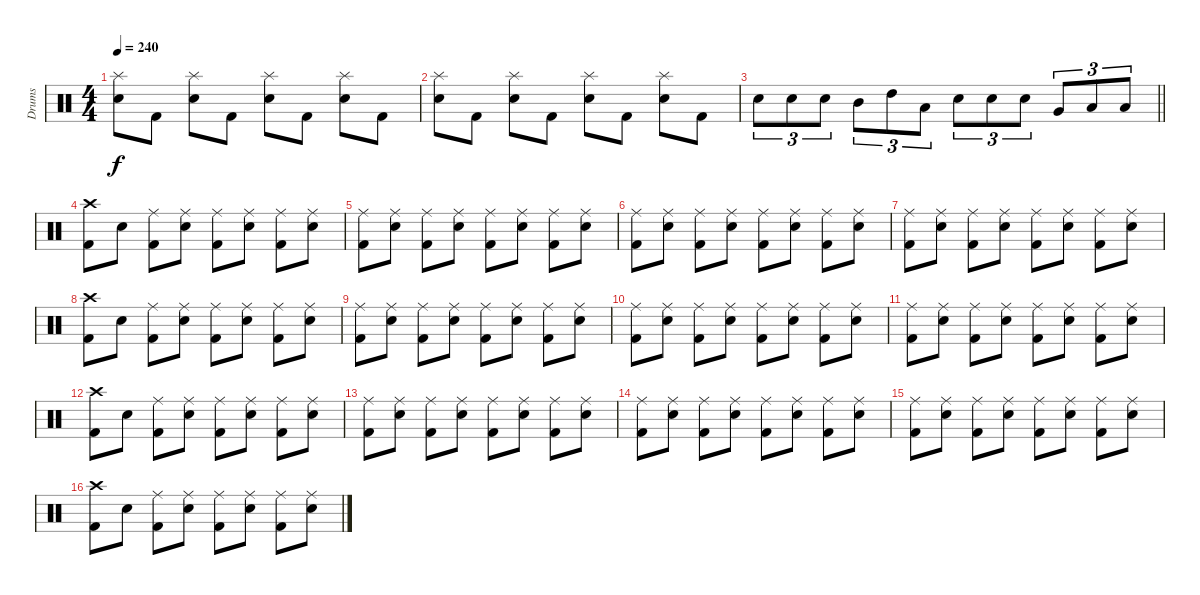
\track ("Drums" "Drums") {instrument percussion}
\staff {score}
\articulation defaults
\ts (4 4)
\tempo 240
\clef neutral
\ks c
("Splash (hit)" "Electric Snare (hit)").8{dy f} "Kick (hit) 2".8 ("Splash (hit)" "Electric Snare (hit)").8 "Kick (hit) 2".8 ("Splash (hit)" "Electric Snare (hit)").8 "Kick (hit) 2".8 ("Splash (hit)" "Electric Snare (hit)").8 "Kick (hit) 2".8 |
("Splash (hit)" "Electric Snare (hit)").8 "Kick (hit) 2".8 ("Splash (hit)" "Electric Snare (hit)").8 "Kick (hit) 2".8 ("Splash (hit)" "Electric Snare (hit)").8 "Kick (hit) 2".8 ("Splash (hit)" "Electric Snare (hit)").8 "Kick (hit) 2".8 |
\barLineRight lightlight "Electric Snare (hit)".8{tu (3 2)} "Electric Snare (hit)".8{tu (3 2)} "Electric Snare (hit)".8{tu (3 2)} "Mid Tom (hit)".8{tu (3 2)} "High Tom (hit)".8{tu (3 2)} "Low Tom (hit)".8{tu (3 2)} "Electric Snare (hit)".8{tu (3 2)} "Electric Snare (hit)".8{tu (3 2)} "Electric Snare (hit)".8{tu (3 2)} "Very Low Tom (hit)".8{tu (3 2)} "Low Tom (hit)".8{tu (3 2)} "Low Floor Tom (hit)".8{tu (3 2)}
|
("Crash high (hit)" "Kick (hit) 2").8 "Electric Snare (hit)".8 ("Ride (middle)" "Kick (hit) 2").8 ("Ride (middle)" "Electric Snare (hit)").8 ("Ride (middle)" "Kick (hit) 2").8 ("Ride (middle)" "Electric Snare (hit)").8 ("Ride (middle)" "Kick (hit) 2").8 ("Ride (middle)" "Electric Snare (hit)").8 |
("Ride (middle)" "Kick (hit) 2").8 ("Ride (middle)" "Electric Snare (hit)").8 ("Ride (middle)" "Kick (hit) 2").8 ("Ride (middle)" "Electric Snare (hit)").8 ("Ride (middle)" "Kick (hit) 2").8 ("Ride (middle)" "Electric Snare (hit)").8 ("Ride (middle)" "Kick (hit) 2").8 ("Ride (middle)" "Electric Snare (hit)").8 |
("Ride (middle)" "Kick (hit) 2").8 ("Ride (middle)" "Electric Snare (hit)").8 ("Ride (middle)" "Kick (hit) 2").8 ("Ride (middle)" "Electric Snare (hit)").8 ("Ride (middle)" "Kick (hit) 2").8 ("Ride (middle)" "Electric Snare (hit)").8 ("Ride (middle)" "Kick (hit) 2").8 ("Ride (middle)" "Electric Snare (hit)").8 |
("Ride (middle)" "Kick (hit) 2").8 ("Ride (middle)" "Electric Snare (hit)").8 ("Ride (middle)" "Kick (hit) 2").8 ("Ride (middle)" "Electric Snare (hit)").8 ("Ride (middle)" "Kick (hit) 2").8 ("Ride (middle)" "Electric Snare (hit)").8 ("Ride (middle)" "Kick (hit) 2").8 ("Ride (middle)" "Electric Snare (hit)").8 |
("Crash high (hit)" "Kick (hit) 2").8 "Electric Snare (hit)".8 ("Ride (middle)" "Kick (hit) 2").8 ("Ride (middle)" "Electric Snare (hit)").8 ("Ride (middle)" "Kick (hit) 2").8 ("Ride (middle)" "Electric Snare (hit)").8 ("Ride (middle)" "Kick (hit) 2").8 ("Ride (middle)" "Electric Snare (hit)").8 |
("Ride (middle)" "Kick (hit) 2").8 ("Ride (middle)" "Electric Snare (hit)").8 ("Ride (middle)" "Kick (hit) 2").8 ("Ride (middle)" "Electric Snare (hit)").8 ("Ride (middle)" "Kick (hit) 2").8 ("Ride (middle)" "Electric Snare (hit)").8 ("Ride (middle)" "Kick (hit) 2").8 ("Ride (middle)" "Electric Snare (hit)").8 |
("Ride (middle)" "Kick (hit) 2").8 ("Ride (middle)" "Electric Snare (hit)").8 ("Ride (middle)" "Kick (hit) 2").8 ("Ride (middle)" "Electric Snare (hit)").8 ("Ride (middle)" "Kick (hit) 2").8 ("Ride (middle)" "Electric Snare (hit)").8 ("Ride (middle)" "Kick (hit) 2").8 ("Ride (middle)" "Electric Snare (hit)").8 |
("Ride (middle)" "Kick (hit) 2").8 ("Ride (middle)" "Electric Snare (hit)").8 ("Ride (middle)" "Kick (hit) 2").8 ("Ride (middle)" "Electric Snare (hit)").8 ("Ride (middle)" "Kick (hit) 2").8 ("Ride (middle)" "Electric Snare (hit)").8 ("Ride (middle)" "Kick (hit) 2").8 ("Ride (middle)" "Electric Snare (hit)").8 |
("Crash high (hit)" "Kick (hit) 2").8 "Electric Snare (hit)".8 ("Ride (middle)" "Kick (hit) 2").8 ("Ride (middle)" "Electric Snare (hit)").8 ("Ride (middle)" "Kick (hit) 2").8 ("Ride (middle)" "Electric Snare (hit)").8 ("Ride (middle)" "Kick (hit) 2").8 ("Ride (middle)" "Electric Snare (hit)").8 |
("Ride (middle)" "Kick (hit) 2").8 ("Ride (middle)" "Electric Snare (hit)").8 ("Ride (middle)" "Kick (hit) 2").8 ("Ride (middle)" "Electric Snare (hit)").8 ("Ride (middle)" "Kick (hit) 2").8 ("Ride (middle)" "Electric Snare (hit)").8 ("Ride (middle)" "Kick (hit) 2").8 ("Ride (middle)" "Electric Snare (hit)").8 |
("Ride (middle)" "Kick (hit) 2").8 ("Ride (middle)" "Electric Snare (hit)").8 ("Ride (middle)" "Kick (hit) 2").8 ("Ride (middle)" "Electric Snare (hit)").8 ("Ride (middle)" "Kick (hit) 2").8 ("Ride (middle)" "Electric Snare (hit)").8 ("Ride (middle)" "Kick (hit) 2").8 ("Ride (middle)" "Electric Snare (hit)").8 |
("Ride (middle)" "Kick (hit) 2").8 ("Ride (middle)" "Electric Snare (hit)").8 ("Ride (middle)" "Kick (hit) 2").8 ("Ride (middle)" "Electric Snare (hit)").8 ("Ride (middle)" "Kick (hit) 2").8 ("Ride (middle)" "Electric Snare (hit)").8 ("Ride (middle)" "Kick (hit) 2").8 ("Ride (middle)" "Electric Snare (hit)").8 |
("Crash high (hit)" "Kick (hit) 2").8 "Electric Snare (hit)".8 ("Ride (middle)" "Kick (hit) 2").8 ("Ride (middle)" "Electric Snare (hit)").8 ("Ride (middle)" "Kick (hit) 2").8 ("Ride (middle)" "Electric Snare (hit)").8 ("Ride (middle)" "Kick (hit) 2").8 ("Ride (middle)" "Electric Snare (hit)").8
